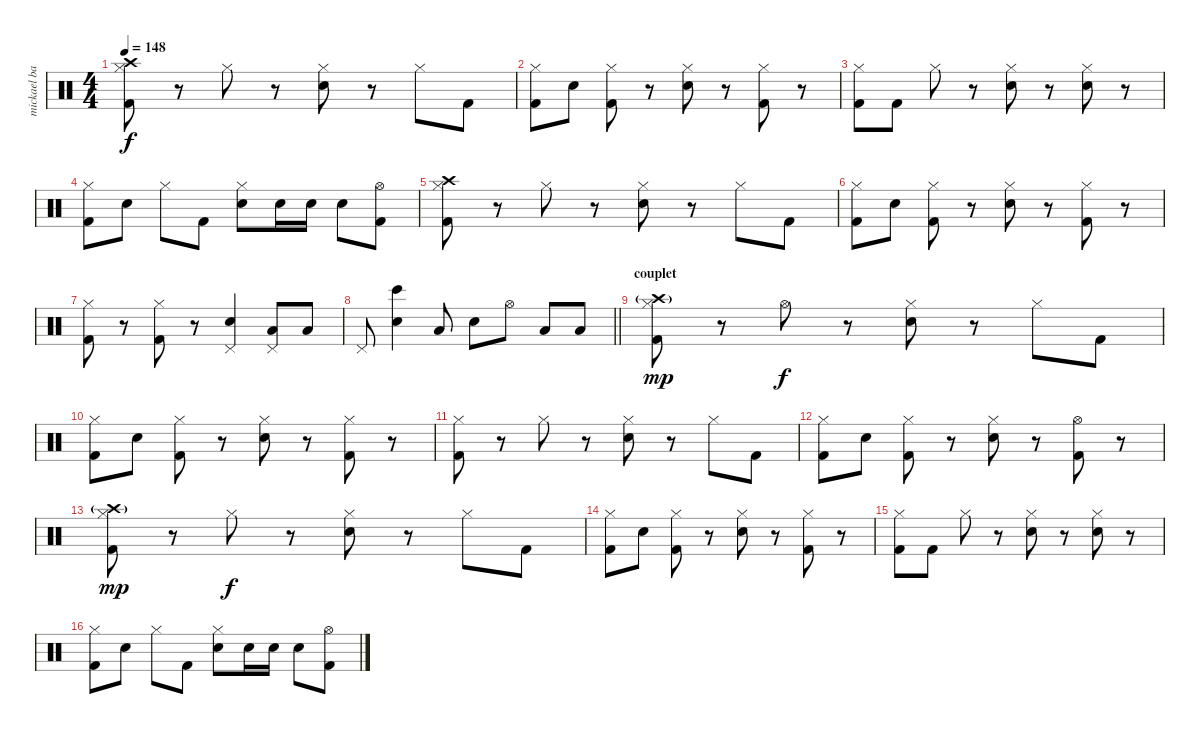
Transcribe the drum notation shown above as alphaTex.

\track ("mickael barker drums" "mickael ba") {instrument percussion}
\staff {score}
\articulation defaults
\ts (4 4)
\tempo 148
\clef neutral
\ks c
("Crash high (hit)" "Hi-Hat (closed)" "Kick (hit) 2").8{dy f} r.8 "Hi-Hat (closed)".8 r.8 ("Hi-Hat (closed)" "Snare (hit) 2").8 r.8 "Hi-Hat (closed)".8 "Kick (hit) 2".8 |
("Hi-Hat (closed)" "Kick (hit) 2").8 "Snare (hit) 2".8 ("Hi-Hat (closed)" "Kick (hit) 2").8 r.8 ("Hi-Hat (closed)" "Snare (hit) 2").8 r.8 ("Hi-Hat (closed)" "Kick (hit) 2").8 r.8 |
("Hi-Hat (closed)" "Kick (hit) 2").8 "Kick (hit) 2".8 "Hi-Hat (closed)".8 r.8 ("Hi-Hat (closed)" "Snare (hit) 2").8 r.8 ("Hi-Hat (closed)" "Snare (hit) 2").8 r.8 |
("Hi-Hat (closed)" "Kick (hit) 2").8 "Snare (hit) 2".8 "Hi-Hat (closed)".8 "Kick (hit) 2".8 ("Hi-Hat (closed)" "Snare (hit) 2").8 "Snare (hit) 2".16 "Snare (hit) 2".16 "Snare (hit) 2".8 ("Hi-Hat (open)" "Kick (hit) 2").8 |
("Crash high (hit)" "Hi-Hat (closed)" "Kick (hit) 2").8 r.8 "Hi-Hat (closed)".8 r.8 ("Hi-Hat (closed)" "Snare (hit) 2").8 r.8 "Hi-Hat (closed)".8 "Kick (hit) 2".8 |
("Hi-Hat (closed)" "Kick (hit) 2").8 "Snare (hit) 2".8 ("Hi-Hat (closed)" "Kick (hit) 2").8 r.8 ("Hi-Hat (closed)" "Snare (hit) 2").8 r.8 ("Hi-Hat (closed)" "Kick (hit) 2").8 r.8 |
("Hi-Hat (closed)" "Kick (hit) 2").8 r.8 ("Hi-Hat (closed)" "Kick (hit) 2").8 r.8 ("Pedal Hi-Hat (hit)" "Snare (hit) 2").4 ("Pedal Hi-Hat (hit)" "Low Tom (hit)").8 "Low Tom (hit)".8 |
\barLineRight lightlight "Pedal Hi-Hat (hit)".8
("Bongo High (hit)" "Snare (hit) 2").4 "Low Tom (hit)".8 "Snare (hit) 2".8 "Hi-Hat (open)".8 "Low Tom (hit)".8 "Low Floor Tom (hit)".8 |
\section ("" "couplet")
("Crash high (hit)"{g} "Hi-Hat (closed)" "Kick (hit) 2").8{dy mp} r.8 "Hi-Hat (open)".8{dy f} r.8 ("Hi-Hat (closed)" "Snare (hit) 2").8 r.8 "Hi-Hat (closed)".8 "Kick (hit) 2".8 |
("Hi-Hat (closed)" "Kick (hit) 2").8 "Snare (hit) 2".8 ("Hi-Hat (closed)" "Kick (hit) 2").8 r.8 ("Hi-Hat (closed)" "Snare (hit) 2").8 r.8 ("Hi-Hat (closed)" "Kick (hit) 2").8 r.8 |
("Hi-Hat (closed)" "Kick (hit) 2").8 r.8 "Hi-Hat (closed)".8 r.8 ("Hi-Hat (closed)" "Snare (hit) 2").8 r.8 "Hi-Hat (closed)".8 "Kick (hit) 2".8 |
("Hi-Hat (closed)" "Kick (hit) 2").8 "Snare (hit) 2".8 ("Hi-Hat (closed)" "Kick (hit) 2").8 r.8 ("Hi-Hat (closed)" "Snare (hit) 2").8 r.8 ("Hi-Hat (open)" "Kick (hit) 2").8 r.8 |
("Crash high (hit)"{g} "Hi-Hat (closed)" "Kick (hit) 2").8{dy mp} r.8 "Hi-Hat (closed)".8{dy f} r.8 ("Hi-Hat (closed)" "Snare (hit) 2").8 r.8 "Hi-Hat (closed)".8 "Kick (hit) 2".8 |
("Hi-Hat (closed)" "Kick (hit) 2").8 "Snare (hit) 2".8 ("Hi-Hat (closed)" "Kick (hit) 2").8 r.8 ("Hi-Hat (closed)" "Snare (hit) 2").8 r.8 ("Hi-Hat (closed)" "Kick (hit) 2").8 r.8 |
("Hi-Hat (closed)" "Kick (hit) 2").8 "Kick (hit) 2".8 "Hi-Hat (closed)".8 r.8 ("Hi-Hat (closed)" "Snare (hit) 2").8 r.8 ("Hi-Hat (closed)" "Snare (hit) 2").8 r.8 |
("Hi-Hat (closed)" "Kick (hit) 2").8 "Snare (hit) 2".8 "Hi-Hat (closed)".8 "Kick (hit) 2".8 ("Hi-Hat (closed)" "Snare (hit) 2").8 "Snare (hit) 2".16 "Snare (hit) 2".16 "Snare (hit) 2".8 ("Hi-Hat (open)" "Kick (hit) 2").8
